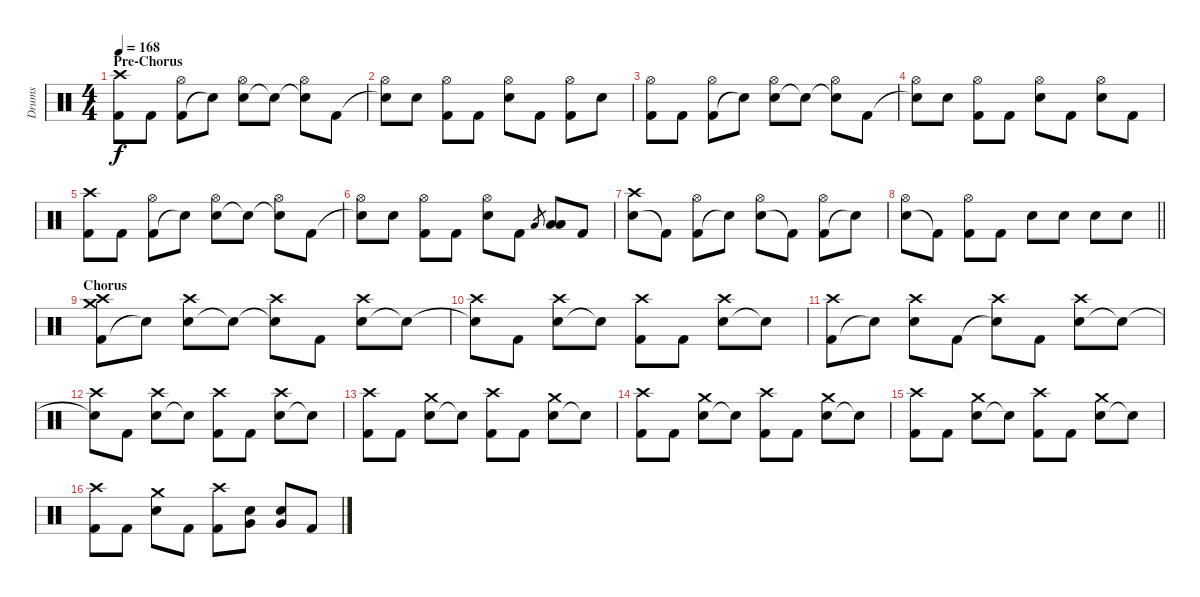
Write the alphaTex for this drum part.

\track ("Drums" "Drums") {instrument percussion}
\staff {score}
\articulation defaults
\ts (4 4)
\section ("" "Pre-Chorus")
\tempo 168
\clef neutral
\ks c
("Kick (hit) 2" "Crash high (hit)").8{dy f} "Kick (hit) 2".8 ("Kick (hit) 2" "Hi-Hat (open)").8 "Snare (hit)"{t}.8 ("Electric Snare (hit)" "Hi-Hat (open)").8 "Snare (hit)"{t}.8 ("Snare (hit)"{t} "Hi-Hat (open)").8 "Kick (hit) 2".8 |
("Snare (hit)"{t} "Hi-Hat (open)").8 "Electric Snare (hit)".8 ("Kick (hit) 2" "Hi-Hat (open)").8 "Kick (hit) 2".8 ("Electric Snare (hit)" "Hi-Hat (open)").8 "Kick (hit) 2".8 ("Kick (hit) 2" "Hi-Hat (open)").8 "Electric Snare (hit)".8 |
("Kick (hit) 2" "Hi-Hat (open)").8 "Kick (hit) 2".8 ("Kick (hit) 2" "Hi-Hat (open)").8 "Snare (hit)"{t}.8 ("Electric Snare (hit)" "Hi-Hat (open)").8 "Snare (hit)"{t}.8 ("Snare (hit)"{t} "Hi-Hat (open)").8 "Kick (hit) 2".8 |
("Snare (hit)"{t} "Hi-Hat (open)").8 "Electric Snare (hit)".8 ("Kick (hit) 2" "Hi-Hat (open)").8 "Kick (hit) 2".8 ("Electric Snare (hit)" "Hi-Hat (open)").8 "Kick (hit) 2".8 ("Electric Snare (hit)" "Hi-Hat (open)").8 "Kick (hit) 2".8 |
("Kick (hit) 2" "Crash high (hit)").8 "Kick (hit) 2".8 ("Kick (hit) 2" "Hi-Hat (open)").8 "Snare (hit)"{t}.8 ("Electric Snare (hit)" "Hi-Hat (open)").8 "Snare (hit)"{t}.8 ("Snare (hit)"{t} "Hi-Hat (open)").8 "Kick (hit) 2".8 |
("Snare (hit)"{t} "Hi-Hat (open)").8 "Electric Snare (hit)".8 ("Kick (hit) 2" "Hi-Hat (open)").8 "Kick (hit) 2".8 ("Electric Snare (hit)" "Hi-Hat (open)").8 "Kick (hit) 2".8 "Low Tom (hit)".8{gr} ("Low Tom (hit)" "Low Floor Tom (hit)").8 "Kick (hit) 2".8 |
("Electric Snare (hit)" "Crash high (hit)").8 "Kick (hit) 2"{t}.8 ("Kick (hit) 2" "Hi-Hat (open)").8 "Snare (hit)"{t}.8 ("Electric Snare (hit)" "Hi-Hat (open)").8 "Kick (hit) 2"{t}.8 ("Kick (hit) 2" "Hi-Hat (open)").8 "Snare (hit)"{t}.8 |
\barLineRight lightlight
("Electric Snare (hit)" "Hi-Hat (open)").8 "Kick (hit) 2"{t}.8 ("Kick (hit) 2" "Hi-Hat (open)").8 "Kick (hit) 2".8 "Electric Snare (hit)".8 "Electric Snare (hit)".8 "Electric Snare (hit)".8 "Electric Snare (hit)".8 |
\section ("" "Chorus")
("Kick (hit) 2" "Crash medium (hit)" "Crash high (hit)").8 "Snare (hit)"{t}.8 ("Electric Snare (hit)" "Crash high (hit)").8 "Snare (hit)"{t}.8 ("Snare (hit)"{t} "Crash high (hit)").8 "Kick (hit) 2".8 ("Electric Snare (hit)" "Crash high (hit)").8 "Snare (hit)"{t}.8 |
("Snare (hit)"{t} "Crash high (hit)").8 "Kick (hit) 2".8 ("Electric Snare (hit)" "Crash high (hit)").8 "Snare (hit)"{t}.8 ("Kick (hit) 2" "Crash high (hit)").8 "Kick (hit) 2".8 ("Electric Snare (hit)" "Crash high (hit)").8 "Snare (hit)"{t}.8 |
("Kick (hit) 2" "Crash high (hit)").8 "Snare (hit)"{t}.8 ("Electric Snare (hit)" "Crash high (hit)").8 "Kick (hit) 2".8 ("Snare (hit)"{t} "Crash high (hit)").8 "Kick (hit) 2".8 ("Electric Snare (hit)" "Crash high (hit)").8 "Snare (hit)"{t}.8 |
("Snare (hit)"{t} "Crash high (hit)").8 "Kick (hit) 2".8 ("Electric Snare (hit)" "Crash high (hit)").8 "Snare (hit)"{t}.8 ("Kick (hit) 2" "Crash high (hit)").8 "Kick (hit) 2".8 ("Electric Snare (hit)" "Crash high (hit)").8 "Snare (hit)"{t}.8 |
("Kick (hit) 2" "Crash high (hit)").8 "Kick (hit) 2".8 ("Electric Snare (hit)" "Crash medium (hit)").8 "Snare (hit)"{t}.8 ("Kick (hit) 2" "Crash high (hit)").8 "Kick (hit) 2".8 ("Electric Snare (hit)" "Crash medium (hit)").8 "Snare (hit)"{t}.8 |
("Kick (hit) 2" "Crash high (hit)").8 "Kick (hit) 2".8 ("Electric Snare (hit)" "Crash medium (hit)").8 "Snare (hit)"{t}.8 ("Kick (hit) 2" "Crash high (hit)").8 "Kick (hit) 2".8 ("Electric Snare (hit)" "Crash medium (hit)").8 "Snare (hit)"{t}.8 |
("Kick (hit) 2" "Crash high (hit)").8 "Kick (hit) 2".8 ("Electric Snare (hit)" "Crash medium (hit)").8 "Snare (hit)"{t}.8 ("Kick (hit) 2" "Crash high (hit)").8 "Kick (hit) 2".8 ("Electric Snare (hit)" "Crash medium (hit)").8 "Snare (hit)"{t}.8 |
("Kick (hit) 2" "Crash high (hit)").8 "Kick (hit) 2".8 ("Electric Snare (hit)" "Crash medium (hit)").8 "Kick (hit) 2".8 ("Kick (hit) 2" "Crash high (hit)").8 ("Electric Snare (hit)" "Very Low Tom (hit)").8 ("Electric Snare (hit)" "Very Low Tom (hit)").8 "Kick (hit) 2".8
